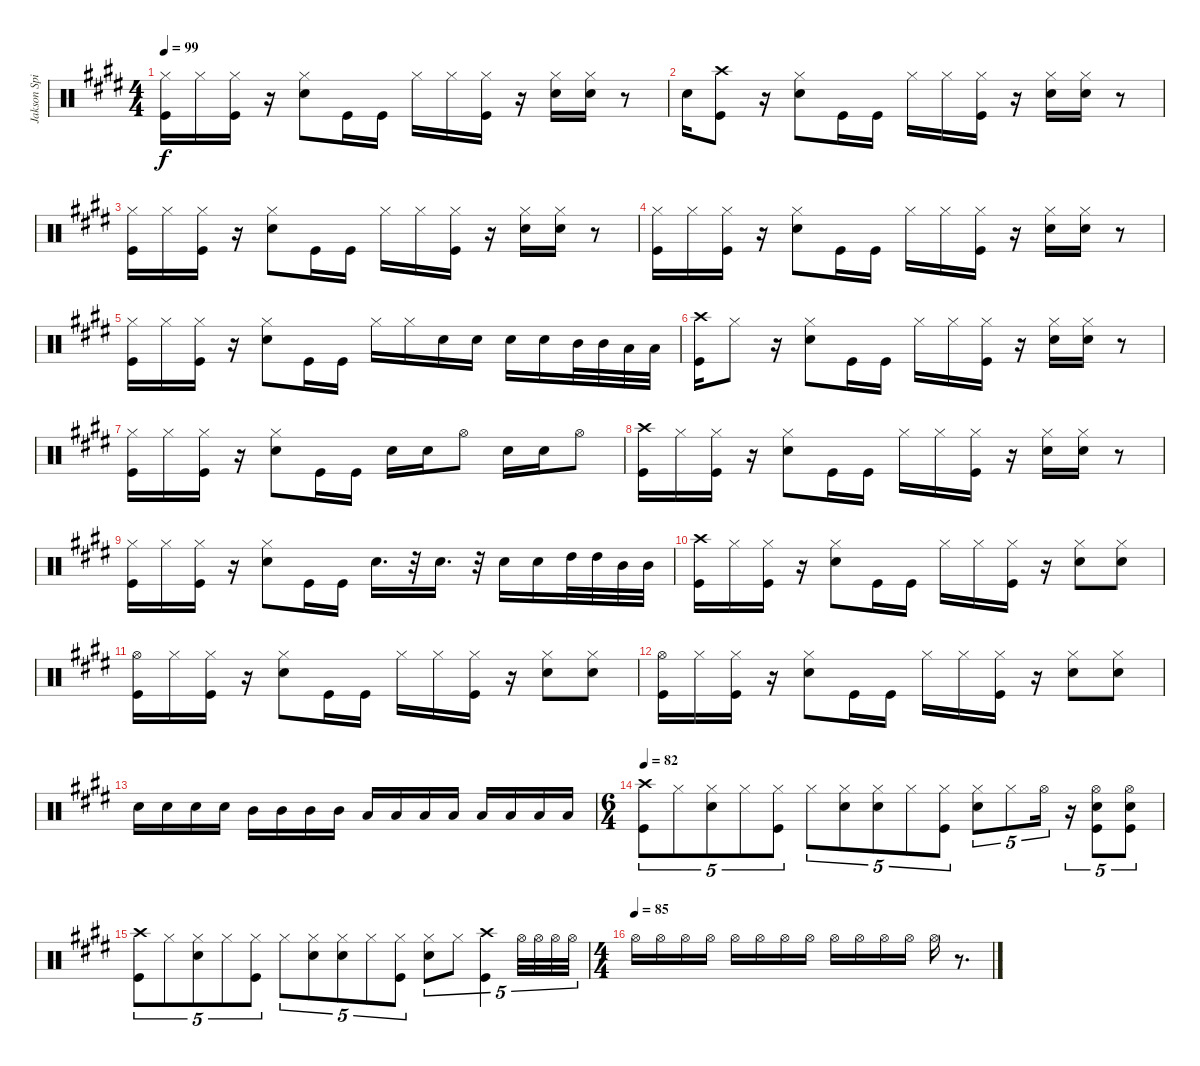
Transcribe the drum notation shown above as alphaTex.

\track ("Jakson Spires Drums" "Jakson Spi") {instrument percussion}
\staff {score}
\articulation defaults
\ts (4 4)
\tempo 99
\clef neutral
\ks e
("Hi-Hat (closed)" "Kick (hit)").16{dy f} "Hi-Hat (closed)".16 ("Hi-Hat (closed)" "Kick (hit)").16 r.16 ("Hi-Hat (closed)" "Snare (hit) 2").8 "Kick (hit)".16 "Kick (hit)".16 "Hi-Hat (closed)".16 "Hi-Hat (closed)".16 ("Hi-Hat (closed)" "Kick (hit)").16 r.16 ("Hi-Hat (closed)" "Snare (hit) 2").16 ("Hi-Hat (closed)" "Snare (hit) 2").16 r.8 |
"Snare (hit) 2".16 ("Crash high (hit)" "Kick (hit)").8 r.16 ("Hi-Hat (closed)" "Snare (hit) 2").8 "Kick (hit)".16 "Kick (hit)".16 "Hi-Hat (closed)".16 "Hi-Hat (closed)".16 ("Hi-Hat (closed)" "Kick (hit)").16 r.16 ("Hi-Hat (closed)" "Snare (hit) 2").16 ("Hi-Hat (closed)" "Snare (hit) 2").16 r.8 |
("Hi-Hat (closed)" "Kick (hit)").16 "Hi-Hat (closed)".16 ("Hi-Hat (closed)" "Kick (hit)").16 r.16 ("Hi-Hat (closed)" "Snare (hit) 2").8 "Kick (hit)".16 "Kick (hit)".16 "Hi-Hat (closed)".16 "Hi-Hat (closed)".16 ("Hi-Hat (closed)" "Kick (hit)").16 r.16 ("Hi-Hat (closed)" "Snare (hit) 2").16 ("Hi-Hat (closed)" "Snare (hit) 2").16 r.8 |
("Hi-Hat (closed)" "Kick (hit)").16 "Hi-Hat (closed)".16 ("Hi-Hat (closed)" "Kick (hit)").16 r.16 ("Hi-Hat (closed)" "Snare (hit) 2").8 "Kick (hit)".16 "Kick (hit)".16 "Hi-Hat (closed)".16 "Hi-Hat (closed)".16 ("Hi-Hat (closed)" "Kick (hit)").16 r.16 ("Hi-Hat (closed)" "Snare (hit) 2").16 ("Hi-Hat (closed)" "Snare (hit) 2").16 r.8 |
("Hi-Hat (closed)" "Kick (hit)").16 "Hi-Hat (closed)".16 ("Hi-Hat (closed)" "Kick (hit)").16 r.16 ("Hi-Hat (closed)" "Snare (hit) 2").8 "Kick (hit)".16 "Kick (hit)".16 "Hi-Hat (closed)".16 "Hi-Hat (closed)".16 "Snare (hit) 2".16 "Snare (hit) 2".16 "Snare (hit) 2".16 "Snare (hit) 2".16 "Mid Tom (hit)".32 "Mid Tom (hit)".32 "Low Floor Tom (hit)".32 "Low Floor Tom (hit)".32 |
("Crash high (hit)" "Kick (hit)").16 "Hi-Hat (closed)".8 r.16 ("Hi-Hat (closed)" "Snare (hit) 2").8 "Kick (hit)".16 "Kick (hit)".16 "Hi-Hat (closed)".16 "Hi-Hat (closed)".16 ("Hi-Hat (closed)" "Kick (hit)").16 r.16 ("Hi-Hat (closed)" "Snare (hit) 2").16 ("Hi-Hat (closed)" "Snare (hit) 2").16 r.8 |
("Hi-Hat (closed)" "Kick (hit)").16 "Hi-Hat (closed)".16 ("Hi-Hat (closed)" "Kick (hit)").16 r.16 ("Hi-Hat (closed)" "Snare (hit) 2").8 "Kick (hit)".16 "Kick (hit)".16 "Snare (hit) 2".16 "Snare (hit) 2".16 "Hi-Hat (open)".8 "Snare (hit) 2".16 "Snare (hit) 2".16 "Hi-Hat (open)".8 |
("Crash high (hit)" "Kick (hit)").16 "Hi-Hat (closed)".16 ("Hi-Hat (closed)" "Kick (hit)").16 r.16 ("Hi-Hat (closed)" "Snare (hit) 2").8 "Kick (hit)".16 "Kick (hit)".16 "Hi-Hat (closed)".16 "Hi-Hat (closed)".16 ("Hi-Hat (closed)" "Kick (hit)").16 r.16 ("Hi-Hat (closed)" "Snare (hit) 2").16 ("Hi-Hat (closed)" "Snare (hit) 2").16 r.8 |
("Hi-Hat (closed)" "Kick (hit)").16 "Hi-Hat (closed)".16 ("Hi-Hat (closed)" "Kick (hit)").16 r.16 ("Hi-Hat (closed)" "Snare (hit) 2").8 "Kick (hit)".16 "Kick (hit)".16 "Snare (hit) 2".16{d} r.32 "Snare (hit) 2".16{d} r.32 "Snare (hit) 2".16 "Snare (hit) 2".16 "High Tom (hit)".32 "High Tom (hit)".32 "Mid Tom (hit)".32 "Mid Tom (hit)".32 |
("Crash high (hit)" "Kick (hit)").16 "Hi-Hat (closed)".16 ("Hi-Hat (closed)" "Kick (hit)").16 r.16 ("Hi-Hat (closed)" "Snare (hit) 2").8 "Kick (hit)".16 "Kick (hit)".16 "Hi-Hat (closed)".16 "Hi-Hat (closed)".16 ("Hi-Hat (closed)" "Kick (hit)").16 r.16 ("Hi-Hat (closed)" "Snare (hit) 2").8 ("Hi-Hat (closed)" "Snare (hit) 2").8 |
("Hi-Hat (open)" "Kick (hit)").16 "Hi-Hat (closed)".16 ("Hi-Hat (closed)" "Kick (hit)").16 r.16 ("Hi-Hat (closed)" "Snare (hit) 2").8 "Kick (hit)".16 "Kick (hit)".16 "Hi-Hat (closed)".16 "Hi-Hat (closed)".16 ("Hi-Hat (closed)" "Kick (hit)").16 r.16 ("Hi-Hat (closed)" "Snare (hit) 2").8 ("Hi-Hat (closed)" "Snare (hit) 2").8 |
("Hi-Hat (open)" "Kick (hit)").16 "Hi-Hat (closed)".16 ("Hi-Hat (closed)" "Kick (hit)").16 r.16 ("Hi-Hat (closed)" "Snare (hit) 2").8 "Kick (hit)".16 "Kick (hit)".16 "Hi-Hat (closed)".16 "Hi-Hat (closed)".16 ("Hi-Hat (closed)" "Kick (hit)").16 r.16 ("Hi-Hat (closed)" "Snare (hit) 2").8 ("Hi-Hat (closed)" "Snare (hit) 2").8 |
"Snare (hit) 2".16 "Snare (hit) 2".16 "Snare (hit) 2".16 "Snare (hit) 2".16 "Mid Tom (hit)".16 "Mid Tom (hit)".16 "Mid Tom (hit)".16 "Mid Tom (hit)".16 "Low Tom (hit)".16 "Low Tom (hit)".16 "Low Tom (hit)".16 "Low Tom (hit)".16 "Low Floor Tom (hit)".16 "Low Floor Tom (hit)".16 "Low Floor Tom (hit)".16 "Low Floor Tom (hit)".16 |
\ts (6 4)
\tempo 82
("Crash high (hit)" "Kick (hit)").8{tu (5 4)} "Hi-Hat (closed)".8{tu (5 4)} ("Hi-Hat (closed)" "Snare (hit) 2").8{tu (5 4)} "Hi-Hat (closed)".8{tu (5 4)} ("Hi-Hat (closed)" "Kick (hit)").8{tu (5 4)} "Hi-Hat (closed)".8{tu (5 4)} ("Hi-Hat (closed)" "Snare (hit) 2").8{tu (5 4)} ("Hi-Hat (closed)" "Snare (hit) 2").8{tu (5 4)} "Hi-Hat (closed)".8{tu (5 4)} ("Hi-Hat (closed)" "Kick (hit)").8{tu (5 4)} ("Hi-Hat (closed)" "Snare (hit) 2").8{tu (5 4)} "Hi-Hat (closed)".8{tu (5 4)} "Hi-Hat (open)".16{tu (5 4)} r.16{tu (5 4)} ("Hi-Hat (open)" "Snare (hit) 2" "Kick (hit)").8{tu (5 4)} ("Hi-Hat (open)" "Snare (hit) 2" "Kick (hit)").8{tu (5 4)} |
("Crash high (hit)" "Kick (hit)").8{tu (5 4)} "Hi-Hat (closed)".8{tu (5 4)} ("Hi-Hat (closed)" "Snare (hit) 2").8{tu (5 4)} "Hi-Hat (closed)".8{tu (5 4)} ("Hi-Hat (closed)" "Kick (hit)").8{tu (5 4)} "Hi-Hat (closed)".8{tu (5 4)} ("Hi-Hat (closed)" "Snare (hit) 2").8{tu (5 4)} ("Hi-Hat (closed)" "Snare (hit) 2").8{tu (5 4)} "Hi-Hat (closed)".8{tu (5 4)} ("Hi-Hat (closed)" "Kick (hit)").8{tu (5 4)} ("Hi-Hat (closed)" "Snare (hit) 2").8{tu (5 4)} "Hi-Hat (closed)".8{tu (5 4)} ("Crash high (hit)" "Kick (hit)").4{tu (5 4)} "Hi-Hat (open)".32{tu (5 4)} "Hi-Hat (open)".32{tu (5 4)} "Hi-Hat (open)".32{tu (5 4)} "Hi-Hat (open)".32{tu (5 4)} |
\ts (4 4)
\tempo 100
\tempo (85)
"Hi-Hat (open)".16 "Hi-Hat (open)".16 "Hi-Hat (open)".16 "Hi-Hat (open)".16 "Hi-Hat (open)".16{volume 15} "Hi-Hat (open)".16 "Hi-Hat (open)".16 "Hi-Hat (open)".16 "Hi-Hat (open)".16 "Hi-Hat (open)".16 "Hi-Hat (open)".16 "Hi-Hat (open)".16 "Hi-Hat (open)".16 r.8{d}
